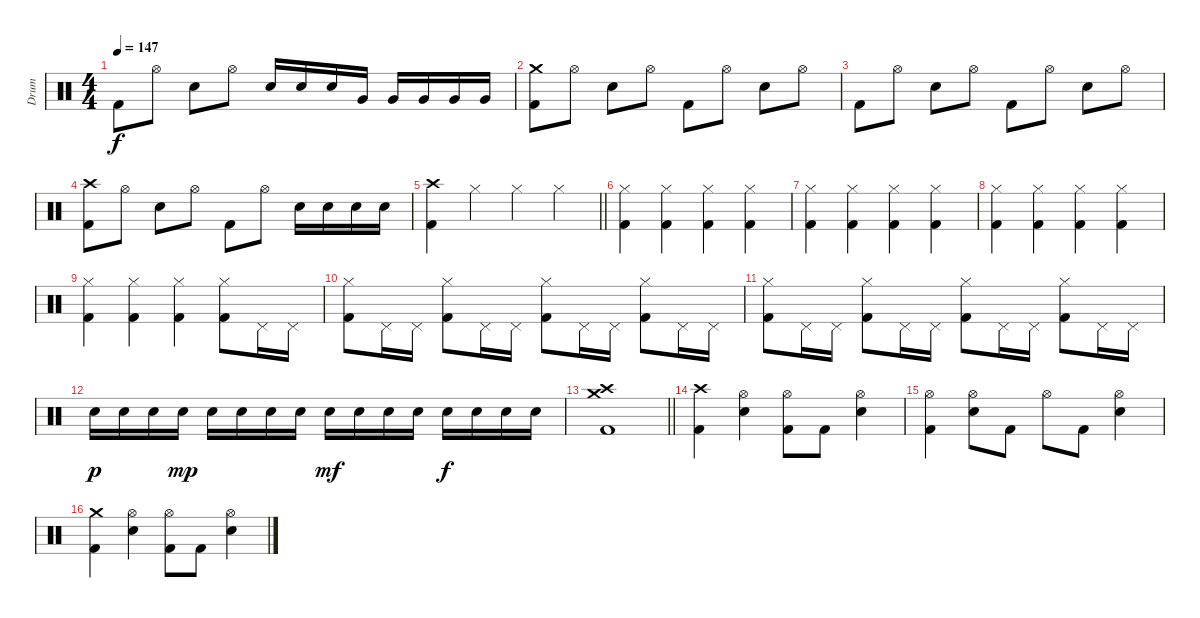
\track ("Drum" "Drum") {instrument percussion}
\staff {score}
\articulation defaults
\ts (4 4)
\tempo 147
\clef neutral
\ks c "Kick (hit) 2".8{dy f} "Hi-Hat (open)".8 "Electric Snare (hit)".8 "Hi-Hat (open)".8 "Electric Snare (hit)".16 "Electric Snare (hit)".16 "Electric Snare (hit)".16 "Very Low Tom (hit)".16 "Very Low Tom (hit)".16 "Very Low Tom (hit)".16 "Very Low Tom (hit)".16 "Very Low Tom (hit)".16
|
("Crash medium (hit)" "Kick (hit) 2").8 "Hi-Hat (open)".8 "Electric Snare (hit)".8 "Hi-Hat (open)".8 "Kick (hit) 2".8 "Hi-Hat (open)".8 "Electric Snare (hit)".8 "Hi-Hat (open)".8 |
"Kick (hit) 2".8 "Hi-Hat (open)".8 "Electric Snare (hit)".8 "Hi-Hat (open)".8 "Kick (hit) 2".8 "Hi-Hat (open)".8 "Electric Snare (hit)".8 "Hi-Hat (open)".8 |
("Crash high (hit)" "Kick (hit) 2").8 "Hi-Hat (open)".8 "Electric Snare (hit)".8 "Hi-Hat (open)".8 "Kick (hit) 2".8 "Hi-Hat (open)".8 "Electric Snare (hit)".16 "Electric Snare (hit)".16 "Electric Snare (hit)".16 "Electric Snare (hit)".16 |
\barLineRight lightlight
("Crash high (hit)" "Kick (hit) 2").4 "Hi-Hat (closed)".4 "Hi-Hat (closed)".4 "Hi-Hat (closed)".4 |
\section ("" "")
("Hi-Hat (closed)" "Kick (hit) 2").4 ("Hi-Hat (closed)" "Kick (hit) 2").4 ("Hi-Hat (closed)" "Kick (hit) 2").4 ("Hi-Hat (closed)" "Kick (hit) 2").4 |
("Hi-Hat (closed)" "Kick (hit) 2").4 ("Hi-Hat (closed)" "Kick (hit) 2").4 ("Hi-Hat (closed)" "Kick (hit) 2").4 ("Hi-Hat (closed)" "Kick (hit) 2").4 |
("Hi-Hat (closed)" "Kick (hit) 2").4 ("Hi-Hat (closed)" "Kick (hit) 2").4 ("Hi-Hat (closed)" "Kick (hit) 2").4 ("Hi-Hat (closed)" "Kick (hit) 2").4 |
("Hi-Hat (closed)" "Kick (hit) 2").4 ("Hi-Hat (closed)" "Kick (hit) 2").4 ("Hi-Hat (closed)" "Kick (hit) 2").4 ("Hi-Hat (closed)" "Kick (hit) 2").8 "Pedal Hi-Hat (hit)".16 "Pedal Hi-Hat (hit)".16 |
("Hi-Hat (closed)" "Kick (hit) 2").8 "Pedal Hi-Hat (hit)".16 "Pedal Hi-Hat (hit)".16 ("Hi-Hat (closed)" "Kick (hit) 2").8 "Pedal Hi-Hat (hit)".16 "Pedal Hi-Hat (hit)".16 ("Hi-Hat (closed)" "Kick (hit) 2").8 "Pedal Hi-Hat (hit)".16 "Pedal Hi-Hat (hit)".16 ("Hi-Hat (closed)" "Kick (hit) 2").8 "Pedal Hi-Hat (hit)".16 "Pedal Hi-Hat (hit)".16 |
("Hi-Hat (closed)" "Kick (hit) 2").8 "Pedal Hi-Hat (hit)".16 "Pedal Hi-Hat (hit)".16 ("Hi-Hat (closed)" "Kick (hit) 2").8 "Pedal Hi-Hat (hit)".16 "Pedal Hi-Hat (hit)".16 ("Hi-Hat (closed)" "Kick (hit) 2").8 "Pedal Hi-Hat (hit)".16 "Pedal Hi-Hat (hit)".16 ("Hi-Hat (closed)" "Kick (hit) 2").8 "Pedal Hi-Hat (hit)".16 "Pedal Hi-Hat (hit)".16 |
"Electric Snare (hit)".16{dy p} "Electric Snare (hit)".16 "Electric Snare (hit)".16 "Electric Snare (hit)".16{dy mp} "Electric Snare (hit)".16 "Electric Snare (hit)".16 "Electric Snare (hit)".16 "Electric Snare (hit)".16 "Electric Snare (hit)".16{dy mf} "Electric Snare (hit)".16 "Electric Snare (hit)".16 "Electric Snare (hit)".16 "Electric Snare (hit)".16{dy f} "Electric Snare (hit)".16 "Electric Snare (hit)".16 "Electric Snare (hit)".16 |
\barLineRight lightlight
("Crash high (hit)" "Crash medium (hit)" "Kick (hit) 2").1 |
\section ("" "")
("Crash high (hit)" "Kick (hit) 2").4 ("Hi-Hat (open)" "Electric Snare (hit)").4 ("Hi-Hat (open)" "Kick (hit) 2").8 "Kick (hit) 2".8 ("Hi-Hat (open)" "Electric Snare (hit)").4 |
("Hi-Hat (open)" "Kick (hit) 2").4 ("Hi-Hat (open)" "Electric Snare (hit)").8 "Kick (hit) 2".8 "Hi-Hat (open)".8 "Kick (hit) 2".8 ("Hi-Hat (open)" "Electric Snare (hit)").4 |
("Crash medium (hit)" "Kick (hit) 2").4 ("Hi-Hat (open)" "Electric Snare (hit)").4 ("Hi-Hat (open)" "Kick (hit) 2").8 "Kick (hit) 2".8 ("Hi-Hat (open)" "Electric Snare (hit)").4
